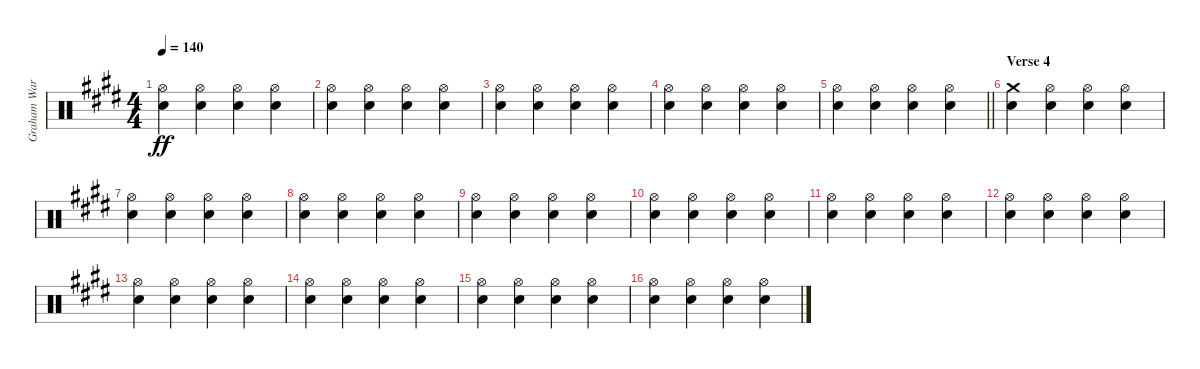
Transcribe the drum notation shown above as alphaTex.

\track ("Graham Ward (Drums)" "Graham War") {instrument percussion}
\staff {score}
\articulation defaults
\ts (4 4)
\tempo 140
\clef neutral
\ks e
("Snare (hit) 2" "Hi-Hat (open)").4{dy ff} ("Snare (hit) 2" "Hi-Hat (open)").4 ("Snare (hit) 2" "Hi-Hat (open)").4 ("Snare (hit) 2" "Hi-Hat (open)").4 |
("Snare (hit) 2" "Hi-Hat (open)").4 ("Snare (hit) 2" "Hi-Hat (open)").4 ("Snare (hit) 2" "Hi-Hat (open)").4 ("Snare (hit) 2" "Hi-Hat (open)").4 |
("Snare (hit) 2" "Hi-Hat (open)").4 ("Snare (hit) 2" "Hi-Hat (open)").4 ("Snare (hit) 2" "Hi-Hat (open)").4 ("Snare (hit) 2" "Hi-Hat (open)").4 |
("Snare (hit) 2" "Hi-Hat (open)").4 ("Snare (hit) 2" "Hi-Hat (open)").4 ("Snare (hit) 2" "Hi-Hat (open)").4 ("Snare (hit) 2" "Hi-Hat (open)").4 |
\barLineRight lightlight
("Snare (hit) 2" "Hi-Hat (open)").4 ("Snare (hit) 2" "Hi-Hat (open)").4 ("Snare (hit) 2" "Hi-Hat (open)").4 ("Snare (hit) 2" "Hi-Hat (open)").4 |
\section ("" "Verse 4")
("Crash medium (hit)" "Snare (hit) 2").4 ("Snare (hit) 2" "Hi-Hat (open)").4 ("Snare (hit) 2" "Hi-Hat (open)").4 ("Snare (hit) 2" "Hi-Hat (open)").4 |
("Snare (hit) 2" "Hi-Hat (open)").4 ("Snare (hit) 2" "Hi-Hat (open)").4 ("Snare (hit) 2" "Hi-Hat (open)").4 ("Snare (hit) 2" "Hi-Hat (open)").4 |
("Snare (hit) 2" "Hi-Hat (open)").4 ("Snare (hit) 2" "Hi-Hat (open)").4 ("Snare (hit) 2" "Hi-Hat (open)").4 ("Snare (hit) 2" "Hi-Hat (open)").4 |
("Snare (hit) 2" "Hi-Hat (open)").4 ("Snare (hit) 2" "Hi-Hat (open)").4 ("Snare (hit) 2" "Hi-Hat (open)").4 ("Snare (hit) 2" "Hi-Hat (open)").4 |
("Snare (hit) 2" "Hi-Hat (open)").4 ("Snare (hit) 2" "Hi-Hat (open)").4 ("Snare (hit) 2" "Hi-Hat (open)").4 ("Snare (hit) 2" "Hi-Hat (open)").4 |
("Snare (hit) 2" "Hi-Hat (open)").4 ("Snare (hit) 2" "Hi-Hat (open)").4 ("Snare (hit) 2" "Hi-Hat (open)").4 ("Snare (hit) 2" "Hi-Hat (open)").4 |
("Snare (hit) 2" "Hi-Hat (open)").4 ("Snare (hit) 2" "Hi-Hat (open)").4 ("Snare (hit) 2" "Hi-Hat (open)").4 ("Snare (hit) 2" "Hi-Hat (open)").4 |
("Snare (hit) 2" "Hi-Hat (open)").4 ("Snare (hit) 2" "Hi-Hat (open)").4 ("Snare (hit) 2" "Hi-Hat (open)").4 ("Snare (hit) 2" "Hi-Hat (open)").4 |
("Snare (hit) 2" "Hi-Hat (open)").4 ("Snare (hit) 2" "Hi-Hat (open)").4 ("Snare (hit) 2" "Hi-Hat (open)").4 ("Snare (hit) 2" "Hi-Hat (open)").4 |
("Snare (hit) 2" "Hi-Hat (open)").4 ("Snare (hit) 2" "Hi-Hat (open)").4 ("Snare (hit) 2" "Hi-Hat (open)").4 ("Snare (hit) 2" "Hi-Hat (open)").4 |
("Snare (hit) 2" "Hi-Hat (open)").4 ("Snare (hit) 2" "Hi-Hat (open)").4 ("Snare (hit) 2" "Hi-Hat (open)").4 ("Snare (hit) 2" "Hi-Hat (open)").4
